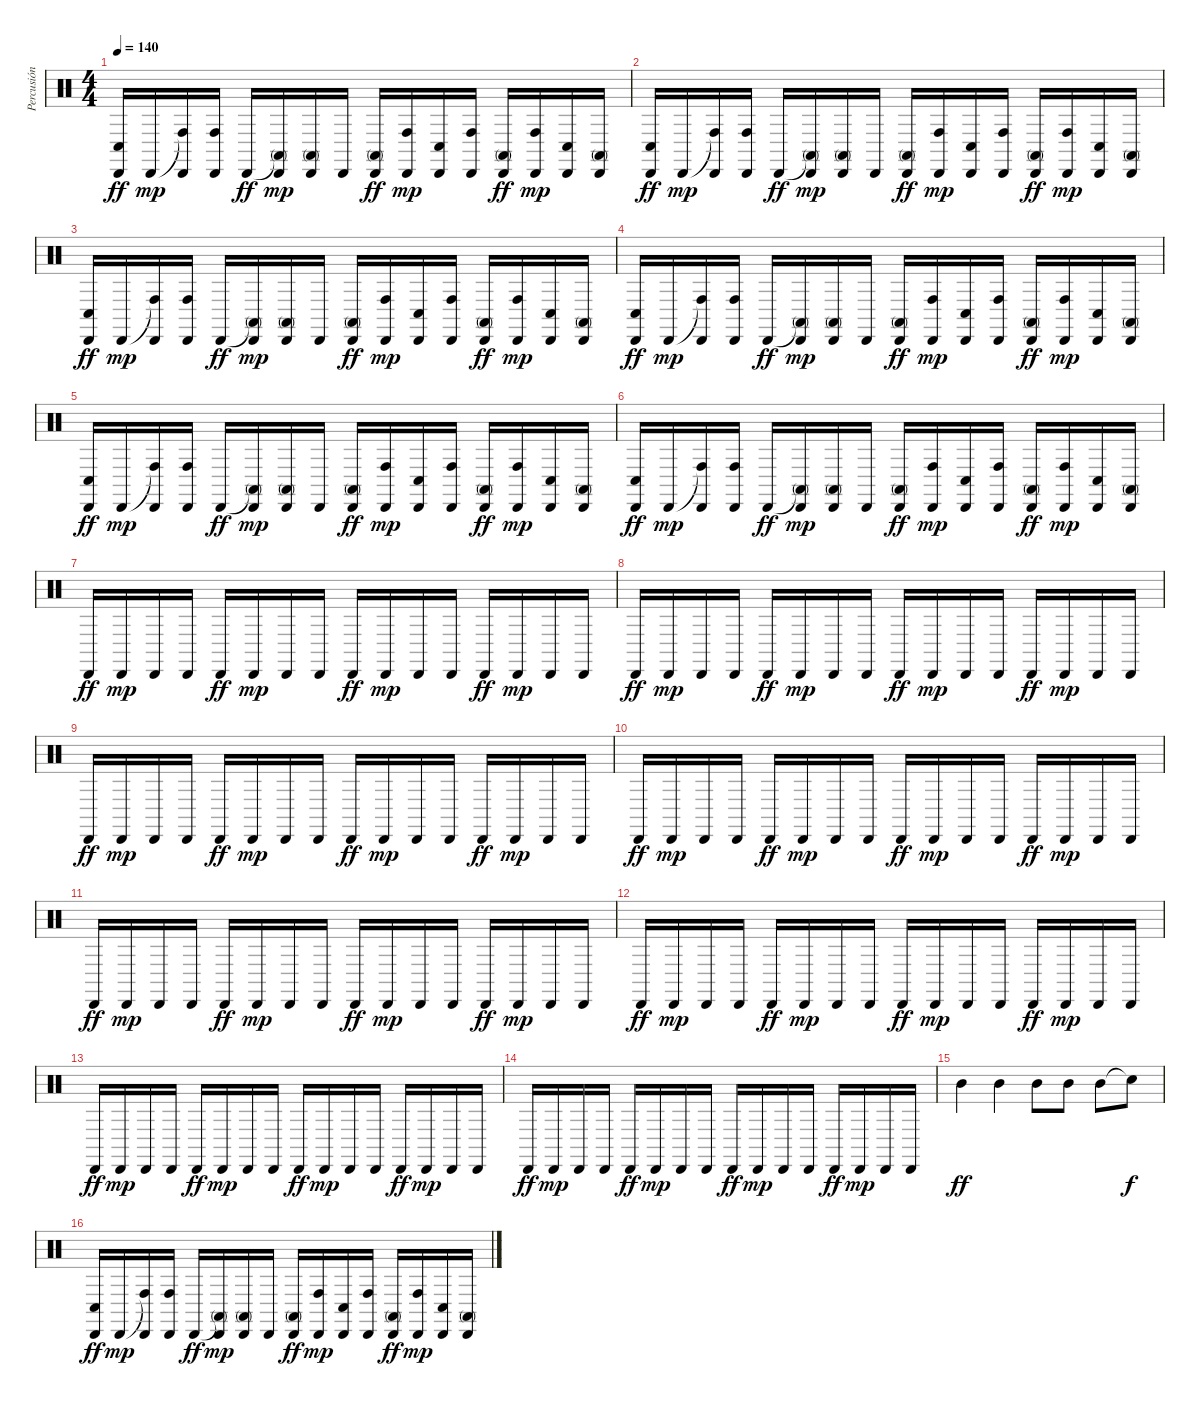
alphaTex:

\track ("Percusión" "Percusión") {instrument percussion}
\staff {score}
\articulation defaults
\ts (4 4)
\tempo 140
\clef neutral
\ks c
("Conga low (hit)" "Cabasa (hit)").16{dy ff} "Cabasa (hit)".16{dy mp} ("Conga high (hit)"{t} "Cabasa (hit)").16 ("Conga high (hit)" "Cabasa (hit)").16 "Cabasa (hit)".16{dy ff} ("Conga high (mute)"{t} "Cabasa (hit)").16{dy mp} ("Conga high (mute)" "Cabasa (hit)").16 "Cabasa (hit)".16 ("Conga high (mute)" "Cabasa (hit)").16{dy ff} ("Conga high (hit)" "Cabasa (hit)").16{dy mp} ("Conga low (hit)" "Cabasa (hit)").16 ("Conga high (hit)" "Cabasa (hit)").16 ("Conga high (mute)" "Cabasa (hit)").16{dy ff} ("Conga high (hit)" "Cabasa (hit)").16{dy mp} ("Conga low (hit)" "Cabasa (hit)").16 ("Conga high (mute)" "Cabasa (hit)").16 |
("Conga low (hit)" "Cabasa (hit)").16{dy ff} "Cabasa (hit)".16{dy mp} ("Conga high (hit)"{t} "Cabasa (hit)").16 ("Conga high (hit)" "Cabasa (hit)").16 "Cabasa (hit)".16{dy ff} ("Conga high (mute)"{t} "Cabasa (hit)").16{dy mp} ("Conga high (mute)" "Cabasa (hit)").16 "Cabasa (hit)".16 ("Conga high (mute)" "Cabasa (hit)").16{dy ff} ("Conga high (hit)" "Cabasa (hit)").16{dy mp} ("Conga low (hit)" "Cabasa (hit)").16 ("Conga high (hit)" "Cabasa (hit)").16 ("Conga high (mute)" "Cabasa (hit)").16{dy ff} ("Conga high (hit)" "Cabasa (hit)").16{dy mp} ("Conga low (hit)" "Cabasa (hit)").16 ("Conga high (mute)" "Cabasa (hit)").16 |
("Conga low (hit)" "Cabasa (hit)").16{dy ff} "Cabasa (hit)".16{dy mp} ("Conga high (hit)"{t} "Cabasa (hit)").16 ("Conga high (hit)" "Cabasa (hit)").16 "Cabasa (hit)".16{dy ff} ("Conga high (mute)"{t} "Cabasa (hit)").16{dy mp} ("Conga high (mute)" "Cabasa (hit)").16 "Cabasa (hit)".16 ("Conga high (mute)" "Cabasa (hit)").16{dy ff} ("Conga high (hit)" "Cabasa (hit)").16{dy mp} ("Conga low (hit)" "Cabasa (hit)").16 ("Conga high (hit)" "Cabasa (hit)").16 ("Conga high (mute)" "Cabasa (hit)").16{dy ff} ("Conga high (hit)" "Cabasa (hit)").16{dy mp} ("Conga low (hit)" "Cabasa (hit)").16 ("Conga high (mute)" "Cabasa (hit)").16 |
("Conga low (hit)" "Cabasa (hit)").16{dy ff} "Cabasa (hit)".16{dy mp} ("Conga high (hit)"{t} "Cabasa (hit)").16 ("Conga high (hit)" "Cabasa (hit)").16 "Cabasa (hit)".16{dy ff} ("Conga high (mute)"{t} "Cabasa (hit)").16{dy mp} ("Conga high (mute)" "Cabasa (hit)").16 "Cabasa (hit)".16 ("Conga high (mute)" "Cabasa (hit)").16{dy ff} ("Conga high (hit)" "Cabasa (hit)").16{dy mp} ("Conga low (hit)" "Cabasa (hit)").16 ("Conga high (hit)" "Cabasa (hit)").16 ("Conga high (mute)" "Cabasa (hit)").16{dy ff} ("Conga high (hit)" "Cabasa (hit)").16{dy mp} ("Conga low (hit)" "Cabasa (hit)").16 ("Conga high (mute)" "Cabasa (hit)").16 |
("Conga low (hit)" "Cabasa (hit)").16{dy ff} "Cabasa (hit)".16{dy mp} ("Conga high (hit)"{t} "Cabasa (hit)").16 ("Conga high (hit)" "Cabasa (hit)").16 "Cabasa (hit)".16{dy ff} ("Conga high (mute)"{t} "Cabasa (hit)").16{dy mp} ("Conga high (mute)" "Cabasa (hit)").16 "Cabasa (hit)".16 ("Conga high (mute)" "Cabasa (hit)").16{dy ff} ("Conga high (hit)" "Cabasa (hit)").16{dy mp} ("Conga low (hit)" "Cabasa (hit)").16 ("Conga high (hit)" "Cabasa (hit)").16 ("Conga high (mute)" "Cabasa (hit)").16{dy ff} ("Conga high (hit)" "Cabasa (hit)").16{dy mp} ("Conga low (hit)" "Cabasa (hit)").16 ("Conga high (mute)" "Cabasa (hit)").16 |
("Conga low (hit)" "Cabasa (hit)").16{dy ff} "Cabasa (hit)".16{dy mp} ("Conga high (hit)"{t} "Cabasa (hit)").16 ("Conga high (hit)" "Cabasa (hit)").16 "Cabasa (hit)".16{dy ff} ("Conga high (mute)"{t} "Cabasa (hit)").16{dy mp} ("Conga high (mute)" "Cabasa (hit)").16 "Cabasa (hit)".16 ("Conga high (mute)" "Cabasa (hit)").16{dy ff} ("Conga high (hit)" "Cabasa (hit)").16{dy mp} ("Conga low (hit)" "Cabasa (hit)").16 ("Conga high (hit)" "Cabasa (hit)").16 ("Conga high (mute)" "Cabasa (hit)").16{dy ff} ("Conga high (hit)" "Cabasa (hit)").16{dy mp} ("Conga low (hit)" "Cabasa (hit)").16 ("Conga high (mute)" "Cabasa (hit)").16 |
"Cabasa (hit)".16{dy ff} "Cabasa (hit)".16{dy mp} "Cabasa (hit)".16 "Cabasa (hit)".16 "Cabasa (hit)".16{dy ff} "Cabasa (hit)".16{dy mp} "Cabasa (hit)".16 "Cabasa (hit)".16 "Cabasa (hit)".16{dy ff} "Cabasa (hit)".16{dy mp} "Cabasa (hit)".16 "Cabasa (hit)".16 "Cabasa (hit)".16{dy ff} "Cabasa (hit)".16{dy mp} "Cabasa (hit)".16 "Cabasa (hit)".16 |
"Cabasa (hit)".16{dy ff} "Cabasa (hit)".16{dy mp} "Cabasa (hit)".16 "Cabasa (hit)".16 "Cabasa (hit)".16{dy ff} "Cabasa (hit)".16{dy mp} "Cabasa (hit)".16 "Cabasa (hit)".16 "Cabasa (hit)".16{dy ff} "Cabasa (hit)".16{dy mp} "Cabasa (hit)".16 "Cabasa (hit)".16 "Cabasa (hit)".16{dy ff} "Cabasa (hit)".16{dy mp} "Cabasa (hit)".16 "Cabasa (hit)".16 |
"Cabasa (hit)".16{dy ff} "Cabasa (hit)".16{dy mp} "Cabasa (hit)".16 "Cabasa (hit)".16 "Cabasa (hit)".16{dy ff} "Cabasa (hit)".16{dy mp} "Cabasa (hit)".16 "Cabasa (hit)".16 "Cabasa (hit)".16{dy ff} "Cabasa (hit)".16{dy mp} "Cabasa (hit)".16 "Cabasa (hit)".16 "Cabasa (hit)".16{dy ff} "Cabasa (hit)".16{dy mp} "Cabasa (hit)".16 "Cabasa (hit)".16 |
"Cabasa (hit)".16{dy ff} "Cabasa (hit)".16{dy mp} "Cabasa (hit)".16 "Cabasa (hit)".16 "Cabasa (hit)".16{dy ff} "Cabasa (hit)".16{dy mp} "Cabasa (hit)".16 "Cabasa (hit)".16 "Cabasa (hit)".16{dy ff} "Cabasa (hit)".16{dy mp} "Cabasa (hit)".16 "Cabasa (hit)".16 "Cabasa (hit)".16{dy ff} "Cabasa (hit)".16{dy mp} "Cabasa (hit)".16 "Cabasa (hit)".16 |
"Cabasa (hit)".16{dy ff} "Cabasa (hit)".16{dy mp} "Cabasa (hit)".16 "Cabasa (hit)".16 "Cabasa (hit)".16{dy ff} "Cabasa (hit)".16{dy mp} "Cabasa (hit)".16 "Cabasa (hit)".16 "Cabasa (hit)".16{dy ff} "Cabasa (hit)".16{dy mp} "Cabasa (hit)".16 "Cabasa (hit)".16 "Cabasa (hit)".16{dy ff} "Cabasa (hit)".16{dy mp} "Cabasa (hit)".16 "Cabasa (hit)".16 |
"Cabasa (hit)".16{dy ff} "Cabasa (hit)".16{dy mp} "Cabasa (hit)".16 "Cabasa (hit)".16 "Cabasa (hit)".16{dy ff} "Cabasa (hit)".16{dy mp} "Cabasa (hit)".16 "Cabasa (hit)".16 "Cabasa (hit)".16{dy ff} "Cabasa (hit)".16{dy mp} "Cabasa (hit)".16 "Cabasa (hit)".16 "Cabasa (hit)".16{dy ff} "Cabasa (hit)".16{dy mp} "Cabasa (hit)".16 "Cabasa (hit)".16 |
"Cabasa (hit)".16{dy ff} "Cabasa (hit)".16{dy mp} "Cabasa (hit)".16 "Cabasa (hit)".16 "Cabasa (hit)".16{dy ff} "Cabasa (hit)".16{dy mp} "Cabasa (hit)".16 "Cabasa (hit)".16 "Cabasa (hit)".16{dy ff} "Cabasa (hit)".16{dy mp} "Cabasa (hit)".16 "Cabasa (hit)".16 "Cabasa (hit)".16{dy ff} "Cabasa (hit)".16{dy mp} "Cabasa (hit)".16 "Cabasa (hit)".16 |
"Cabasa (hit)".16{dy ff} "Cabasa (hit)".16{dy mp} "Cabasa (hit)".16 "Cabasa (hit)".16 "Cabasa (hit)".16{dy ff} "Cabasa (hit)".16{dy mp} "Cabasa (hit)".16 "Cabasa (hit)".16 "Cabasa (hit)".16{dy ff} "Cabasa (hit)".16{dy mp} "Cabasa (hit)".16 "Cabasa (hit)".16 "Cabasa (hit)".16{dy ff} "Cabasa (hit)".16{dy mp} "Cabasa (hit)".16 "Cabasa (hit)".16 |
"Mid Tom (hit)".4{dy ff} "Mid Tom (hit)".4 "Mid Tom (hit)".8 "Mid Tom (hit)".8 "Mid Tom (hit)".8 "Snare (hit)"{t}.8{dy f} |
("Conga low (hit)" "Cabasa (hit)").16{dy ff} "Cabasa (hit)".16{dy mp} ("Conga high (hit)"{t} "Cabasa (hit)").16 ("Conga high (hit)" "Cabasa (hit)").16 "Cabasa (hit)".16{dy ff} ("Conga high (mute)"{t} "Cabasa (hit)").16{dy mp} ("Conga high (mute)" "Cabasa (hit)").16 "Cabasa (hit)".16 ("Conga high (mute)" "Cabasa (hit)").16{dy ff} ("Conga high (hit)" "Cabasa (hit)").16{dy mp} ("Conga low (hit)" "Cabasa (hit)").16 ("Conga high (hit)" "Cabasa (hit)").16 ("Conga high (mute)" "Cabasa (hit)").16{dy ff} ("Conga high (hit)" "Cabasa (hit)").16{dy mp} ("Conga low (hit)" "Cabasa (hit)").16 ("Conga high (mute)" "Cabasa (hit)").16
